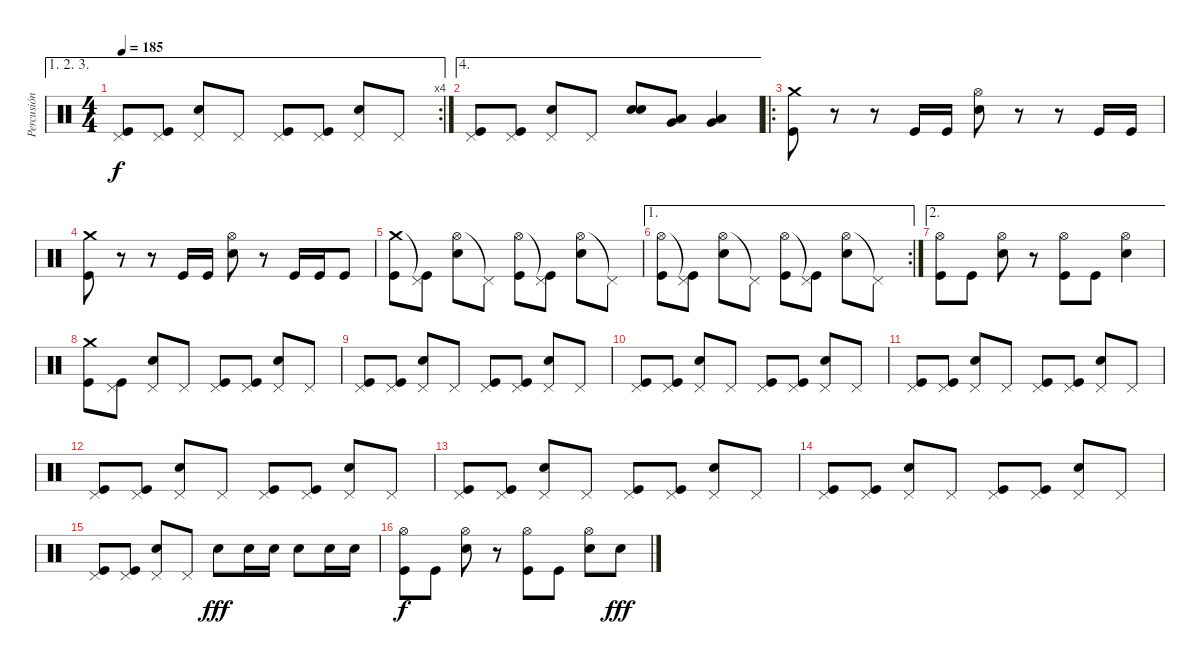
\track ("Percusión" "Percusión") {instrument percussion}
\staff {score}
\articulation defaults
\ae (1 2 3)
\rc 4
\ts (4 4)
\tempo 185
\clef neutral
\ks c
("Pedal Hi-Hat (hit)" "Kick (hit)").8{dy f} ("Pedal Hi-Hat (hit)" "Kick (hit)").8 ("Pedal Hi-Hat (hit)" "Electric Snare (hit)").8 "Pedal Hi-Hat (hit)".8 ("Pedal Hi-Hat (hit)" "Kick (hit)").8 ("Pedal Hi-Hat (hit)" "Kick (hit)").8 ("Pedal Hi-Hat (hit)" "Electric Snare (hit)").8 "Pedal Hi-Hat (hit)".8 |
\ae 4
("Pedal Hi-Hat (hit)" "Kick (hit)").8 ("Pedal Hi-Hat (hit)" "Kick (hit)").8 ("Pedal Hi-Hat (hit)" "Electric Snare (hit)").8 "Pedal Hi-Hat (hit)".8 ("Electric Snare (hit)" "Electric Snare (hit)").8 ("Very Low Tom (hit)" "Low Tom (hit)").8 ("Low Floor Tom (hit)" "Very Low Tom (hit)").4 |
\ro
("Crash medium (hit)" "Kick (hit)").8 r.8 r.8 "Kick (hit)".16 "Kick (hit)".16 ("Hi-Hat (open)" "Electric Snare (hit)").8 r.8 r.8 "Kick (hit)".16 "Kick (hit)".16 |
("Crash medium (hit)" "Kick (hit)").8 r.8 r.8 "Kick (hit)".16 "Kick (hit)".16 ("Hi-Hat (open)" "Electric Snare (hit)").8 r.8 "Kick (hit)".16 "Kick (hit)".16 "Kick (hit)".8 |
("Crash medium (hit)" "Kick (hit)").8 ("Pedal Hi-Hat (hit)"{t} "Kick (hit)").8 ("Hi-Hat (open)" "Electric Snare (hit)").8 "Pedal Hi-Hat (hit)"{t}.8 ("Hi-Hat (open)" "Kick (hit)").8 ("Pedal Hi-Hat (hit)"{t} "Kick (hit)").8 ("Hi-Hat (open)" "Electric Snare (hit)").8 "Pedal Hi-Hat (hit)"{t}.8 |
\ae 1
\rc 2
("Hi-Hat (open)" "Kick (hit)").8 ("Pedal Hi-Hat (hit)"{t} "Kick (hit)").8 ("Hi-Hat (open)" "Electric Snare (hit)").8 "Pedal Hi-Hat (hit)"{t}.8 ("Hi-Hat (open)" "Kick (hit)").8 ("Pedal Hi-Hat (hit)"{t} "Kick (hit)").8 ("Hi-Hat (open)" "Electric Snare (hit)").8 "Pedal Hi-Hat (hit)"{t}.8 |
\ae 2
("Hi-Hat (open)" "Kick (hit)").8 "Kick (hit)".8 ("Hi-Hat (open)" "Electric Snare (hit)").8 r.8 ("Hi-Hat (open)" "Kick (hit)").8 "Kick (hit)".8 ("Hi-Hat (open)" "Electric Snare (hit)").4 |
("Crash medium (hit)" "Kick (hit)").8 ("Pedal Hi-Hat (hit)" "Kick (hit)").8 ("Pedal Hi-Hat (hit)" "Electric Snare (hit)").8 "Pedal Hi-Hat (hit)".8 ("Pedal Hi-Hat (hit)" "Kick (hit)").8 ("Pedal Hi-Hat (hit)" "Kick (hit)").8 ("Pedal Hi-Hat (hit)" "Electric Snare (hit)").8 "Pedal Hi-Hat (hit)".8 |
("Pedal Hi-Hat (hit)" "Kick (hit)").8 ("Pedal Hi-Hat (hit)" "Kick (hit)").8 ("Pedal Hi-Hat (hit)" "Electric Snare (hit)").8 "Pedal Hi-Hat (hit)".8 ("Pedal Hi-Hat (hit)" "Kick (hit)").8 ("Pedal Hi-Hat (hit)" "Kick (hit)").8 ("Pedal Hi-Hat (hit)" "Electric Snare (hit)").8 "Pedal Hi-Hat (hit)".8 |
("Pedal Hi-Hat (hit)" "Kick (hit)").8 ("Pedal Hi-Hat (hit)" "Kick (hit)").8 ("Pedal Hi-Hat (hit)" "Electric Snare (hit)").8 "Pedal Hi-Hat (hit)".8 ("Pedal Hi-Hat (hit)" "Kick (hit)").8 ("Pedal Hi-Hat (hit)" "Kick (hit)").8 ("Pedal Hi-Hat (hit)" "Electric Snare (hit)").8 "Pedal Hi-Hat (hit)".8 |
("Pedal Hi-Hat (hit)" "Kick (hit)").8 ("Pedal Hi-Hat (hit)" "Kick (hit)").8 ("Pedal Hi-Hat (hit)" "Electric Snare (hit)").8 "Pedal Hi-Hat (hit)".8 ("Pedal Hi-Hat (hit)" "Kick (hit)").8 ("Pedal Hi-Hat (hit)" "Kick (hit)").8 ("Pedal Hi-Hat (hit)" "Electric Snare (hit)").8 "Pedal Hi-Hat (hit)".8 |
("Pedal Hi-Hat (hit)" "Kick (hit)").8 ("Pedal Hi-Hat (hit)" "Kick (hit)").8 ("Pedal Hi-Hat (hit)" "Electric Snare (hit)").8 "Pedal Hi-Hat (hit)".8 ("Pedal Hi-Hat (hit)" "Kick (hit)").8 ("Pedal Hi-Hat (hit)" "Kick (hit)").8 ("Pedal Hi-Hat (hit)" "Electric Snare (hit)").8 "Pedal Hi-Hat (hit)".8 |
("Pedal Hi-Hat (hit)" "Kick (hit)").8 ("Pedal Hi-Hat (hit)" "Kick (hit)").8 ("Pedal Hi-Hat (hit)" "Electric Snare (hit)").8 "Pedal Hi-Hat (hit)".8 ("Pedal Hi-Hat (hit)" "Kick (hit)").8 ("Pedal Hi-Hat (hit)" "Kick (hit)").8 ("Pedal Hi-Hat (hit)" "Electric Snare (hit)").8 "Pedal Hi-Hat (hit)".8 |
("Pedal Hi-Hat (hit)" "Kick (hit)").8 ("Pedal Hi-Hat (hit)" "Kick (hit)").8 ("Pedal Hi-Hat (hit)" "Electric Snare (hit)").8 "Pedal Hi-Hat (hit)".8 ("Pedal Hi-Hat (hit)" "Kick (hit)").8 ("Pedal Hi-Hat (hit)" "Kick (hit)").8 ("Pedal Hi-Hat (hit)" "Electric Snare (hit)").8 "Pedal Hi-Hat (hit)".8 |
("Pedal Hi-Hat (hit)" "Kick (hit)").8 ("Pedal Hi-Hat (hit)" "Kick (hit)").8 ("Pedal Hi-Hat (hit)" "Electric Snare (hit)").8 "Pedal Hi-Hat (hit)".8 "Electric Snare (hit)".8{dy fff} "Electric Snare (hit)".16 "Electric Snare (hit)".16 "Electric Snare (hit)".8 "Electric Snare (hit)".16 "Electric Snare (hit)".16 |
("Hi-Hat (open)" "Kick (hit)").8{dy f} "Kick (hit)".8 ("Hi-Hat (open)" "Electric Snare (hit)").8 r.8 ("Hi-Hat (open)" "Kick (hit)").8 "Kick (hit)".8 ("Hi-Hat (open)" "Electric Snare (hit)").8 "Electric Snare (hit)".8{dy fff}
